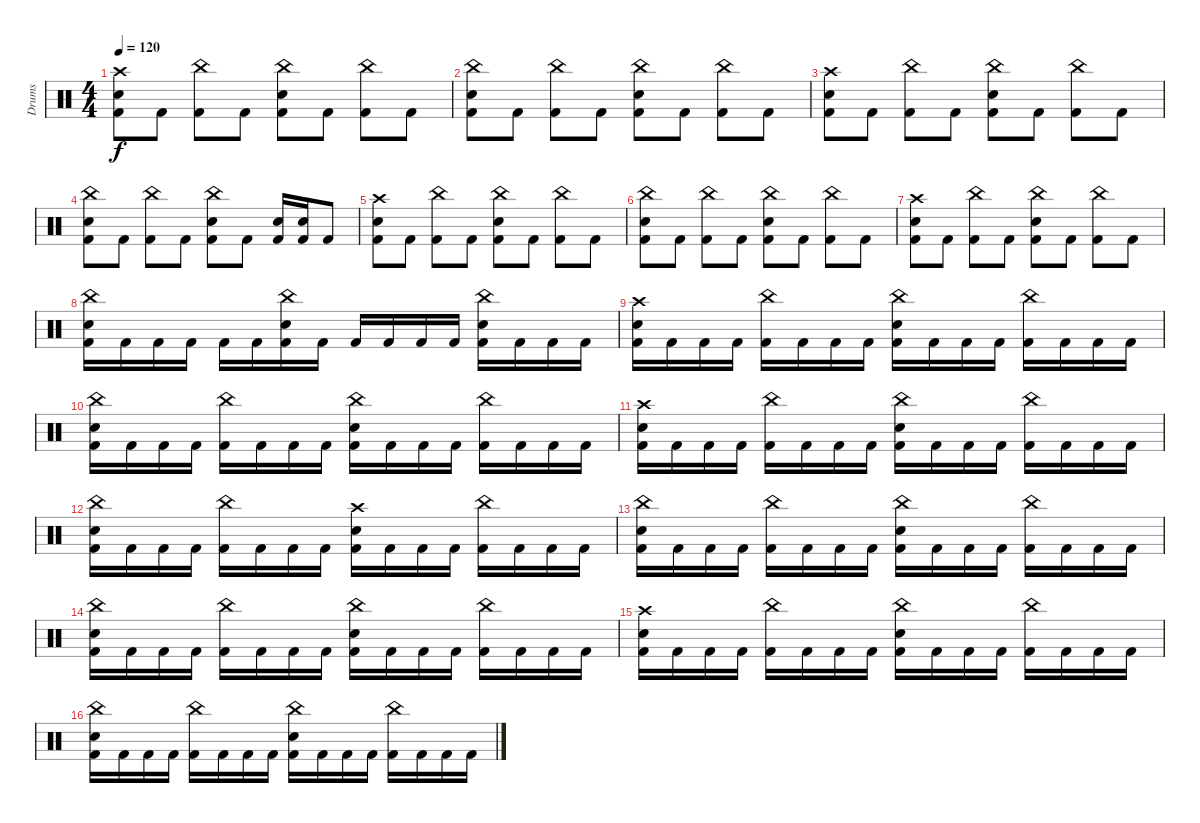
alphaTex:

\track ("Drums" "Drums") {instrument percussion}
\staff {score}
\articulation defaults
\ts (4 4)
\tempo 120
\clef neutral
\ks c
("Crash high (hit)" "Snare (hit) 2" "Kick (hit) 2").8{dy f} "Kick (hit) 2".8 ("China (hit)" "Kick (hit) 2").8 "Kick (hit) 2".8 ("China (hit)" "Snare (hit) 2" "Kick (hit) 2").8 "Kick (hit) 2".8 ("China (hit)" "Kick (hit) 2").8 "Kick (hit) 2".8 |
("China (hit)" "Snare (hit) 2" "Kick (hit) 2").8 "Kick (hit) 2".8 ("China (hit)" "Kick (hit) 2").8 "Kick (hit) 2".8 ("China (hit)" "Snare (hit) 2" "Kick (hit) 2").8 "Kick (hit) 2".8 ("China (hit)" "Kick (hit) 2").8 "Kick (hit) 2".8 |
("Crash high (hit)" "Snare (hit) 2" "Kick (hit) 2").8 "Kick (hit) 2".8 ("China (hit)" "Kick (hit) 2").8 "Kick (hit) 2".8 ("China (hit)" "Snare (hit) 2" "Kick (hit) 2").8 "Kick (hit) 2".8 ("China (hit)" "Kick (hit) 2").8 "Kick (hit) 2".8 |
("China (hit)" "Snare (hit) 2" "Kick (hit) 2").8 "Kick (hit) 2".8 ("China (hit)" "Kick (hit) 2").8 "Kick (hit) 2".8 ("China (hit)" "Snare (hit) 2" "Kick (hit) 2").8 "Kick (hit) 2".8 ("Snare (hit) 2" "Kick (hit) 2").16 ("Snare (hit) 2" "Kick (hit) 2").16 "Kick (hit) 2".8 |
("Crash high (hit)" "Snare (hit) 2" "Kick (hit) 2").8 "Kick (hit) 2".8 ("China (hit)" "Kick (hit) 2").8 "Kick (hit) 2".8 ("China (hit)" "Snare (hit) 2" "Kick (hit) 2").8 "Kick (hit) 2".8 ("China (hit)" "Kick (hit) 2").8 "Kick (hit) 2".8 |
("China (hit)" "Snare (hit) 2" "Kick (hit) 2").8 "Kick (hit) 2".8 ("China (hit)" "Kick (hit) 2").8 "Kick (hit) 2".8 ("China (hit)" "Snare (hit) 2" "Kick (hit) 2").8 "Kick (hit) 2".8 ("China (hit)" "Kick (hit) 2").8 "Kick (hit) 2".8 |
("Crash high (hit)" "Snare (hit) 2" "Kick (hit) 2").8 "Kick (hit) 2".8 ("China (hit)" "Kick (hit) 2").8 "Kick (hit) 2".8 ("China (hit)" "Snare (hit) 2" "Kick (hit) 2").8 "Kick (hit) 2".8 ("China (hit)" "Kick (hit) 2").8 "Kick (hit) 2".8 |
("China (hit)" "Snare (hit) 2" "Kick (hit) 2").16 "Kick (hit) 2".16 "Kick (hit) 2".16 "Kick (hit) 2".16 "Kick (hit) 2".16 "Kick (hit) 2".16 ("China (hit)" "Snare (hit) 2" "Kick (hit) 2").16 "Kick (hit) 2".16 "Kick (hit) 2".16 "Kick (hit) 2".16 "Kick (hit) 2".16 "Kick (hit) 2".16 ("China (hit)" "Snare (hit) 2" "Kick (hit) 2").16 "Kick (hit) 2".16 "Kick (hit) 2".16 "Kick (hit) 2".16 |
("Crash high (hit)" "Snare (hit) 2" "Kick (hit) 2").16 "Kick (hit) 2".16 "Kick (hit) 2".16 "Kick (hit) 2".16 ("China (hit)" "Kick (hit) 2").16 "Kick (hit) 2".16 "Kick (hit) 2".16 "Kick (hit) 2".16 ("China (hit)" "Snare (hit) 2" "Kick (hit) 2").16 "Kick (hit) 2".16 "Kick (hit) 2".16 "Kick (hit) 2".16 ("China (hit)" "Kick (hit) 2").16 "Kick (hit) 2".16 "Kick (hit) 2".16 "Kick (hit) 2".16 |
("China (hit)" "Snare (hit) 2" "Kick (hit) 2").16 "Kick (hit) 2".16 "Kick (hit) 2".16 "Kick (hit) 2".16 ("China (hit)" "Kick (hit) 2").16 "Kick (hit) 2".16 "Kick (hit) 2".16 "Kick (hit) 2".16 ("China (hit)" "Snare (hit) 2" "Kick (hit) 2").16 "Kick (hit) 2".16 "Kick (hit) 2".16 "Kick (hit) 2".16 ("China (hit)" "Kick (hit) 2").16 "Kick (hit) 2".16 "Kick (hit) 2".16 "Kick (hit) 2".16 |
("Crash high (hit)" "Snare (hit) 2" "Kick (hit) 2").16 "Kick (hit) 2".16 "Kick (hit) 2".16 "Kick (hit) 2".16 ("China (hit)" "Kick (hit) 2").16 "Kick (hit) 2".16 "Kick (hit) 2".16 "Kick (hit) 2".16 ("China (hit)" "Snare (hit) 2" "Kick (hit) 2").16 "Kick (hit) 2".16 "Kick (hit) 2".16 "Kick (hit) 2".16 ("China (hit)" "Kick (hit) 2").16 "Kick (hit) 2".16 "Kick (hit) 2".16 "Kick (hit) 2".16 |
("China (hit)" "Snare (hit) 2" "Kick (hit) 2").16 "Kick (hit) 2".16 "Kick (hit) 2".16 "Kick (hit) 2".16 ("China (hit)" "Kick (hit) 2").16 "Kick (hit) 2".16 "Kick (hit) 2".16 "Kick (hit) 2".16 ("Crash high (hit)" "Snare (hit) 2" "Kick (hit) 2").16 "Kick (hit) 2".16 "Kick (hit) 2".16 "Kick (hit) 2".16 ("China (hit)" "Kick (hit) 2").16 "Kick (hit) 2".16 "Kick (hit) 2".16 "Kick (hit) 2".16 |
("China (hit)" "Snare (hit) 2" "Kick (hit) 2").16 "Kick (hit) 2".16 "Kick (hit) 2".16 "Kick (hit) 2".16 ("China (hit)" "Kick (hit) 2").16 "Kick (hit) 2".16 "Kick (hit) 2".16 "Kick (hit) 2".16 ("China (hit)" "Snare (hit) 2" "Kick (hit) 2").16 "Kick (hit) 2".16 "Kick (hit) 2".16 "Kick (hit) 2".16 ("China (hit)" "Kick (hit) 2").16 "Kick (hit) 2".16 "Kick (hit) 2".16 "Kick (hit) 2".16 |
("China (hit)" "Snare (hit) 2" "Kick (hit) 2").16 "Kick (hit) 2".16 "Kick (hit) 2".16 "Kick (hit) 2".16 ("China (hit)" "Kick (hit) 2").16 "Kick (hit) 2".16 "Kick (hit) 2".16 "Kick (hit) 2".16 ("China (hit)" "Snare (hit) 2" "Kick (hit) 2").16 "Kick (hit) 2".16 "Kick (hit) 2".16 "Kick (hit) 2".16 ("China (hit)" "Kick (hit) 2").16 "Kick (hit) 2".16 "Kick (hit) 2".16 "Kick (hit) 2".16 |
("Crash high (hit)" "Snare (hit) 2" "Kick (hit) 2").16 "Kick (hit) 2".16 "Kick (hit) 2".16 "Kick (hit) 2".16 ("China (hit)" "Kick (hit) 2").16 "Kick (hit) 2".16 "Kick (hit) 2".16 "Kick (hit) 2".16 ("China (hit)" "Snare (hit) 2" "Kick (hit) 2").16 "Kick (hit) 2".16 "Kick (hit) 2".16 "Kick (hit) 2".16 ("China (hit)" "Kick (hit) 2").16 "Kick (hit) 2".16 "Kick (hit) 2".16 "Kick (hit) 2".16 |
("China (hit)" "Snare (hit) 2" "Kick (hit) 2").16 "Kick (hit) 2".16 "Kick (hit) 2".16 "Kick (hit) 2".16 ("China (hit)" "Kick (hit) 2").16 "Kick (hit) 2".16 "Kick (hit) 2".16 "Kick (hit) 2".16 ("China (hit)" "Snare (hit) 2" "Kick (hit) 2").16 "Kick (hit) 2".16 "Kick (hit) 2".16 "Kick (hit) 2".16 ("China (hit)" "Kick (hit) 2").16 "Kick (hit) 2".16 "Kick (hit) 2".16 "Kick (hit) 2".16
